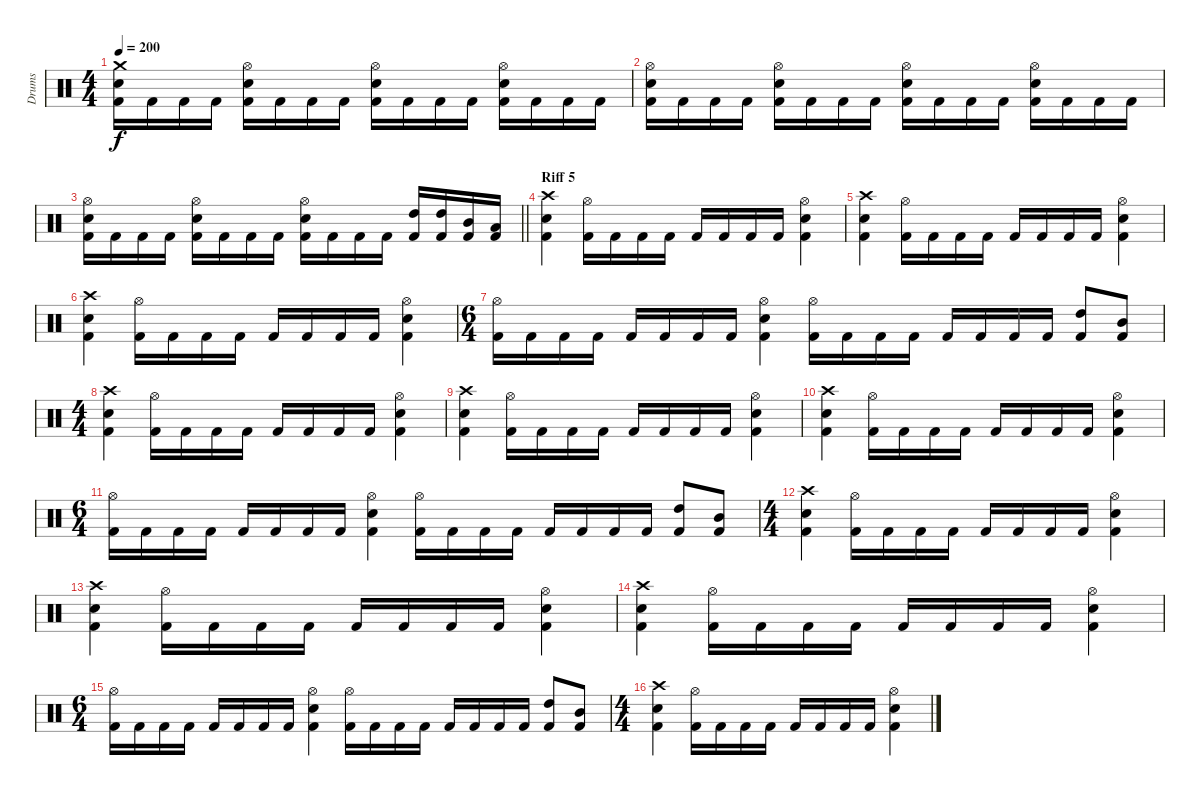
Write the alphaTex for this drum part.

\track ("Drums" "Drums") {instrument percussion}
\staff {score}
\articulation defaults
\ts (4 4)
\tempo 200
\clef neutral
\ks c
("Crash medium (hit)" "Electric Snare (hit)" "Kick (hit) 2").16{dy f} "Kick (hit) 2".16 "Kick (hit) 2".16 "Kick (hit) 2".16 ("Hi-Hat (open)" "Electric Snare (hit)" "Kick (hit) 2").16 "Kick (hit) 2".16 "Kick (hit) 2".16 "Kick (hit) 2".16 ("Hi-Hat (open)" "Electric Snare (hit)" "Kick (hit) 2").16 "Kick (hit) 2".16 "Kick (hit) 2".16 "Kick (hit) 2".16 ("Hi-Hat (open)" "Electric Snare (hit)" "Kick (hit) 2").16 "Kick (hit) 2".16 "Kick (hit) 2".16 "Kick (hit) 2".16 |
("Hi-Hat (open)" "Electric Snare (hit)" "Kick (hit) 2").16 "Kick (hit) 2".16 "Kick (hit) 2".16 "Kick (hit) 2".16 ("Hi-Hat (open)" "Electric Snare (hit)" "Kick (hit) 2").16 "Kick (hit) 2".16 "Kick (hit) 2".16 "Kick (hit) 2".16 ("Hi-Hat (open)" "Electric Snare (hit)" "Kick (hit) 2").16 "Kick (hit) 2".16 "Kick (hit) 2".16 "Kick (hit) 2".16 ("Hi-Hat (open)" "Electric Snare (hit)" "Kick (hit) 2").16 "Kick (hit) 2".16 "Kick (hit) 2".16 "Kick (hit) 2".16 |
\barLineRight lightlight
("Hi-Hat (open)" "Electric Snare (hit)" "Kick (hit) 2").16 "Kick (hit) 2".16 "Kick (hit) 2".16 "Kick (hit) 2".16 ("Hi-Hat (open)" "Electric Snare (hit)" "Kick (hit) 2").16 "Kick (hit) 2".16 "Kick (hit) 2".16 "Kick (hit) 2".16 ("Hi-Hat (open)" "Electric Snare (hit)" "Kick (hit) 2").16 "Kick (hit) 2".16 "Kick (hit) 2".16 "Kick (hit) 2".16 ("High Tom (hit)" "Kick (hit) 2").16 ("High Tom (hit)" "Kick (hit) 2").16 ("Mid Tom (hit)" "Kick (hit) 2").16 ("Low Tom (hit)" "Kick (hit) 2").16 |
\section ("" "Riff 5")
("Crash high (hit)" "Electric Snare (hit)" "Kick (hit) 2").4 ("Hi-Hat (open)" "Kick (hit) 2").16 "Kick (hit) 2".16 "Kick (hit) 2".16 "Kick (hit) 2".16 "Kick (hit) 2".16 "Kick (hit) 2".16 "Kick (hit) 2".16 "Kick (hit) 2".16 ("Hi-Hat (open)" "Electric Snare (hit)" "Kick (hit) 2").4 |
("Crash high (hit)" "Electric Snare (hit)" "Kick (hit) 2").4 ("Hi-Hat (open)" "Kick (hit) 2").16 "Kick (hit) 2".16 "Kick (hit) 2".16 "Kick (hit) 2".16 "Kick (hit) 2".16 "Kick (hit) 2".16 "Kick (hit) 2".16 "Kick (hit) 2".16 ("Hi-Hat (open)" "Electric Snare (hit)" "Kick (hit) 2").4 |
("Crash high (hit)" "Electric Snare (hit)" "Kick (hit) 2").4 ("Hi-Hat (open)" "Kick (hit) 2").16 "Kick (hit) 2".16 "Kick (hit) 2".16 "Kick (hit) 2".16 "Kick (hit) 2".16 "Kick (hit) 2".16 "Kick (hit) 2".16 "Kick (hit) 2".16 ("Hi-Hat (open)" "Electric Snare (hit)" "Kick (hit) 2").4 |
\ts (6 4)
("Hi-Hat (open)" "Kick (hit) 2").16 "Kick (hit) 2".16 "Kick (hit) 2".16 "Kick (hit) 2".16 "Kick (hit) 2".16 "Kick (hit) 2".16 "Kick (hit) 2".16 "Kick (hit) 2".16 ("Hi-Hat (open)" "Electric Snare (hit)" "Kick (hit) 2").4 ("Hi-Hat (open)" "Kick (hit) 2").16 "Kick (hit) 2".16 "Kick (hit) 2".16 "Kick (hit) 2".16 "Kick (hit) 2".16 "Kick (hit) 2".16 "Kick (hit) 2".16 "Kick (hit) 2".16 ("High Tom (hit)" "Kick (hit) 2").8 ("Mid Tom (hit)" "Kick (hit) 2").8 |
\ts (4 4)
("Crash high (hit)" "Electric Snare (hit)" "Kick (hit) 2").4 ("Hi-Hat (open)" "Kick (hit) 2").16 "Kick (hit) 2".16 "Kick (hit) 2".16 "Kick (hit) 2".16 "Kick (hit) 2".16 "Kick (hit) 2".16 "Kick (hit) 2".16 "Kick (hit) 2".16 ("Hi-Hat (open)" "Electric Snare (hit)" "Kick (hit) 2").4 |
("Crash high (hit)" "Electric Snare (hit)" "Kick (hit) 2").4 ("Hi-Hat (open)" "Kick (hit) 2").16 "Kick (hit) 2".16 "Kick (hit) 2".16 "Kick (hit) 2".16 "Kick (hit) 2".16 "Kick (hit) 2".16 "Kick (hit) 2".16 "Kick (hit) 2".16 ("Hi-Hat (open)" "Electric Snare (hit)" "Kick (hit) 2").4 |
("Crash high (hit)" "Electric Snare (hit)" "Kick (hit) 2").4 ("Hi-Hat (open)" "Kick (hit) 2").16 "Kick (hit) 2".16 "Kick (hit) 2".16 "Kick (hit) 2".16 "Kick (hit) 2".16 "Kick (hit) 2".16 "Kick (hit) 2".16 "Kick (hit) 2".16 ("Hi-Hat (open)" "Electric Snare (hit)" "Kick (hit) 2").4 |
\ts (6 4)
("Hi-Hat (open)" "Kick (hit) 2").16 "Kick (hit) 2".16 "Kick (hit) 2".16 "Kick (hit) 2".16 "Kick (hit) 2".16 "Kick (hit) 2".16 "Kick (hit) 2".16 "Kick (hit) 2".16 ("Hi-Hat (open)" "Electric Snare (hit)" "Kick (hit) 2").4 ("Hi-Hat (open)" "Kick (hit) 2").16 "Kick (hit) 2".16 "Kick (hit) 2".16 "Kick (hit) 2".16 "Kick (hit) 2".16 "Kick (hit) 2".16 "Kick (hit) 2".16 "Kick (hit) 2".16 ("High Tom (hit)" "Kick (hit) 2").8 ("Mid Tom (hit)" "Kick (hit) 2").8 |
\ts (4 4)
("Crash high (hit)" "Electric Snare (hit)" "Kick (hit) 2").4 ("Hi-Hat (open)" "Kick (hit) 2").16 "Kick (hit) 2".16 "Kick (hit) 2".16 "Kick (hit) 2".16 "Kick (hit) 2".16 "Kick (hit) 2".16 "Kick (hit) 2".16 "Kick (hit) 2".16 ("Hi-Hat (open)" "Electric Snare (hit)" "Kick (hit) 2").4 |
("Crash high (hit)" "Electric Snare (hit)" "Kick (hit) 2").4 ("Hi-Hat (open)" "Kick (hit) 2").16 "Kick (hit) 2".16 "Kick (hit) 2".16 "Kick (hit) 2".16 "Kick (hit) 2".16 "Kick (hit) 2".16 "Kick (hit) 2".16 "Kick (hit) 2".16 ("Hi-Hat (open)" "Electric Snare (hit)" "Kick (hit) 2").4 |
("Crash high (hit)" "Electric Snare (hit)" "Kick (hit) 2").4 ("Hi-Hat (open)" "Kick (hit) 2").16 "Kick (hit) 2".16 "Kick (hit) 2".16 "Kick (hit) 2".16 "Kick (hit) 2".16 "Kick (hit) 2".16 "Kick (hit) 2".16 "Kick (hit) 2".16 ("Hi-Hat (open)" "Electric Snare (hit)" "Kick (hit) 2").4 |
\ts (6 4)
("Hi-Hat (open)" "Kick (hit) 2").16 "Kick (hit) 2".16 "Kick (hit) 2".16 "Kick (hit) 2".16 "Kick (hit) 2".16 "Kick (hit) 2".16 "Kick (hit) 2".16 "Kick (hit) 2".16 ("Hi-Hat (open)" "Electric Snare (hit)" "Kick (hit) 2").4 ("Hi-Hat (open)" "Kick (hit) 2").16 "Kick (hit) 2".16 "Kick (hit) 2".16 "Kick (hit) 2".16 "Kick (hit) 2".16 "Kick (hit) 2".16 "Kick (hit) 2".16 "Kick (hit) 2".16 ("High Tom (hit)" "Kick (hit) 2").8 ("Mid Tom (hit)" "Kick (hit) 2").8 |
\ts (4 4)
("Crash high (hit)" "Electric Snare (hit)" "Kick (hit) 2").4 ("Hi-Hat (open)" "Kick (hit) 2").16 "Kick (hit) 2".16 "Kick (hit) 2".16 "Kick (hit) 2".16 "Kick (hit) 2".16 "Kick (hit) 2".16 "Kick (hit) 2".16 "Kick (hit) 2".16 ("Hi-Hat (open)" "Electric Snare (hit)" "Kick (hit) 2").4
